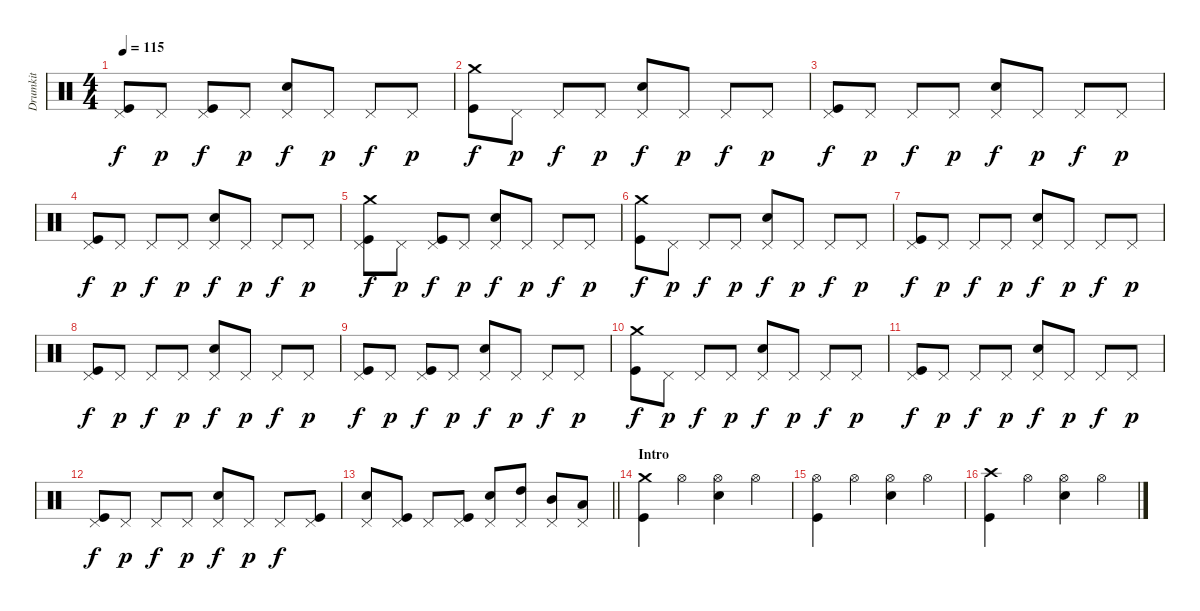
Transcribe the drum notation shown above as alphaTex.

\track ("Drumkit" "Drumkit") {instrument percussion}
\staff {score}
\articulation defaults
\ts (4 4)
\tempo 115
\clef neutral
\ks c
("Kick (hit)" "Pedal Hi-Hat (hit)").8{dy f} "Pedal Hi-Hat (hit)".8{dy p} ("Kick (hit)" "Pedal Hi-Hat (hit)").8{dy f} "Pedal Hi-Hat (hit)".8{dy p} ("Pedal Hi-Hat (hit)" "Snare (hit) 2").8{dy f} "Pedal Hi-Hat (hit)".8{dy p} "Pedal Hi-Hat (hit)".8{dy f} "Pedal Hi-Hat (hit)".8{dy p} |
("Kick (hit)" "Crash medium (hit)").8{dy f} "Pedal Hi-Hat (hit)".8{dy p} "Pedal Hi-Hat (hit)".8{dy f} "Pedal Hi-Hat (hit)".8{dy p} ("Pedal Hi-Hat (hit)" "Snare (hit) 2").8{dy f} "Pedal Hi-Hat (hit)".8{dy p} "Pedal Hi-Hat (hit)".8{dy f} "Pedal Hi-Hat (hit)".8{dy p} |
("Kick (hit)" "Pedal Hi-Hat (hit)").8{dy f} "Pedal Hi-Hat (hit)".8{dy p} "Pedal Hi-Hat (hit)".8{dy f} "Pedal Hi-Hat (hit)".8{dy p} ("Pedal Hi-Hat (hit)" "Snare (hit) 2").8{dy f} "Pedal Hi-Hat (hit)".8{dy p} "Pedal Hi-Hat (hit)".8{dy f} "Pedal Hi-Hat (hit)".8{dy p} |
("Kick (hit)" "Pedal Hi-Hat (hit)").8{dy f} "Pedal Hi-Hat (hit)".8{dy p} "Pedal Hi-Hat (hit)".8{dy f} "Pedal Hi-Hat (hit)".8{dy p} ("Pedal Hi-Hat (hit)" "Snare (hit) 2").8{dy f} "Pedal Hi-Hat (hit)".8{dy p} "Pedal Hi-Hat (hit)".8{dy f} "Pedal Hi-Hat (hit)".8{dy p} |
("Kick (hit)" "Crash medium (hit)" "Pedal Hi-Hat (hit)").8{dy f} "Pedal Hi-Hat (hit)".8{dy p} ("Kick (hit)" "Pedal Hi-Hat (hit)").8{dy f} "Pedal Hi-Hat (hit)".8{dy p} ("Pedal Hi-Hat (hit)" "Snare (hit) 2").8{dy f} "Pedal Hi-Hat (hit)".8{dy p} "Pedal Hi-Hat (hit)".8{dy f} "Pedal Hi-Hat (hit)".8{dy p} |
("Kick (hit)" "Crash medium (hit)").8{dy f} "Pedal Hi-Hat (hit)".8{dy p} "Pedal Hi-Hat (hit)".8{dy f} "Pedal Hi-Hat (hit)".8{dy p} ("Pedal Hi-Hat (hit)" "Snare (hit) 2").8{dy f} "Pedal Hi-Hat (hit)".8{dy p} "Pedal Hi-Hat (hit)".8{dy f} "Pedal Hi-Hat (hit)".8{dy p} |
("Kick (hit)" "Pedal Hi-Hat (hit)").8{dy f} "Pedal Hi-Hat (hit)".8{dy p} "Pedal Hi-Hat (hit)".8{dy f} "Pedal Hi-Hat (hit)".8{dy p} ("Pedal Hi-Hat (hit)" "Snare (hit) 2").8{dy f} "Pedal Hi-Hat (hit)".8{dy p} "Pedal Hi-Hat (hit)".8{dy f} "Pedal Hi-Hat (hit)".8{dy p} |
("Kick (hit)" "Pedal Hi-Hat (hit)").8{dy f} "Pedal Hi-Hat (hit)".8{dy p} "Pedal Hi-Hat (hit)".8{dy f} "Pedal Hi-Hat (hit)".8{dy p} ("Pedal Hi-Hat (hit)" "Snare (hit) 2").8{dy f} "Pedal Hi-Hat (hit)".8{dy p} "Pedal Hi-Hat (hit)".8{dy f} "Pedal Hi-Hat (hit)".8{dy p} |
("Kick (hit)" "Pedal Hi-Hat (hit)").8{dy f} "Pedal Hi-Hat (hit)".8{dy p} ("Kick (hit)" "Pedal Hi-Hat (hit)").8{dy f} "Pedal Hi-Hat (hit)".8{dy p} ("Pedal Hi-Hat (hit)" "Snare (hit) 2").8{dy f} "Pedal Hi-Hat (hit)".8{dy p} "Pedal Hi-Hat (hit)".8{dy f} "Pedal Hi-Hat (hit)".8{dy p} |
("Kick (hit)" "Crash medium (hit)").8{dy f} "Pedal Hi-Hat (hit)".8{dy p} "Pedal Hi-Hat (hit)".8{dy f} "Pedal Hi-Hat (hit)".8{dy p} ("Pedal Hi-Hat (hit)" "Snare (hit) 2").8{dy f} "Pedal Hi-Hat (hit)".8{dy p} "Pedal Hi-Hat (hit)".8{dy f} "Pedal Hi-Hat (hit)".8{dy p} |
("Kick (hit)" "Pedal Hi-Hat (hit)").8{dy f} "Pedal Hi-Hat (hit)".8{dy p} "Pedal Hi-Hat (hit)".8{dy f} "Pedal Hi-Hat (hit)".8{dy p} ("Pedal Hi-Hat (hit)" "Snare (hit) 2").8{dy f} "Pedal Hi-Hat (hit)".8{dy p} "Pedal Hi-Hat (hit)".8{dy f} "Pedal Hi-Hat (hit)".8{dy p} |
("Kick (hit)" "Pedal Hi-Hat (hit)").8{dy f} "Pedal Hi-Hat (hit)".8{dy p} "Pedal Hi-Hat (hit)".8{dy f} "Pedal Hi-Hat (hit)".8{dy p} ("Pedal Hi-Hat (hit)" "Snare (hit) 2").8{dy f} "Pedal Hi-Hat (hit)".8{dy p} "Pedal Hi-Hat (hit)".8{dy f} ("Kick (hit)" "Pedal Hi-Hat (hit)").8 |
\barLineRight lightlight
("Pedal Hi-Hat (hit)" "Snare (hit) 2").8 ("Kick (hit)" "Pedal Hi-Hat (hit)").8 "Pedal Hi-Hat (hit)".8 ("Kick (hit)" "Pedal Hi-Hat (hit)").8 ("Pedal Hi-Hat (hit)" "Snare (hit) 2").8 ("High Tom (hit)" "Pedal Hi-Hat (hit)").8 ("Mid Tom (hit)" "Pedal Hi-Hat (hit)").8 ("Low Tom (hit)" "Pedal Hi-Hat (hit)").8 |
\section ("" "Intro")
("Kick (hit)" "Crash medium (hit)").4 "Hi-Hat (open)".4 ("Hi-Hat (open)" "Snare (hit) 2").4 "Hi-Hat (open)".4 |
("Kick (hit)" "Hi-Hat (open)").4 "Hi-Hat (open)".4 ("Hi-Hat (open)" "Snare (hit) 2").4 "Hi-Hat (open)".4 |
("Kick (hit)" "Crash high (hit)").4 "Hi-Hat (open)".4 ("Hi-Hat (open)" "Snare (hit) 2").4 "Hi-Hat (open)".4
